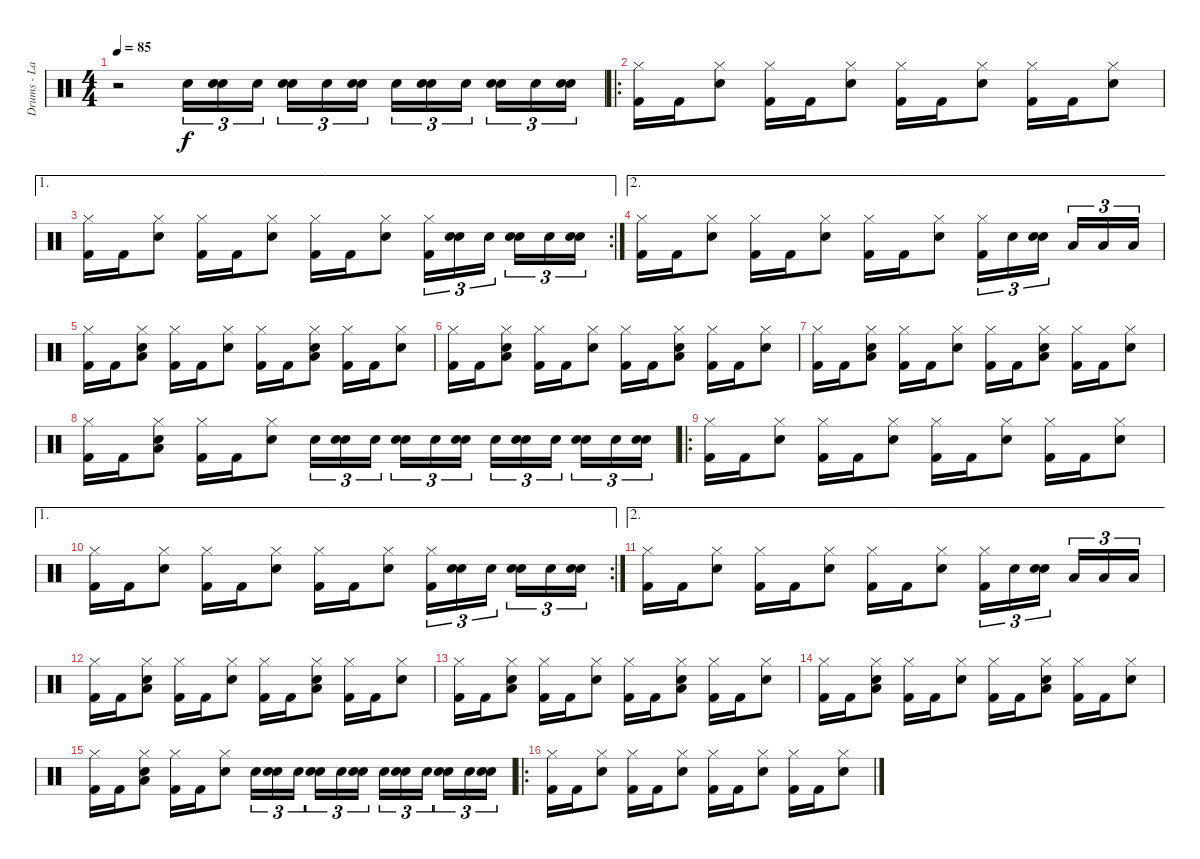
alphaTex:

\track ("Drums - Larzon" "Drums - La") {instrument percussion}
\staff {score}
\articulation defaults
\ts (4 4)
\tempo 85
\clef neutral
\ks c
r.2{dy f} "Snare (hit) 2".16{tu (3 2)} ("Snare (hit) 2" "Snare (hit) 2").16{tu (3 2)} "Snare (hit) 2".16{tu (3 2)} ("Snare (hit) 2" "Snare (hit) 2").16{tu (3 2)} "Snare (hit) 2".16{tu (3 2)} ("Snare (hit) 2" "Snare (hit) 2").16{tu (3 2)} "Snare (hit) 2".16{tu (3 2)} ("Snare (hit) 2" "Snare (hit) 2").16{tu (3 2)} "Snare (hit) 2".16{tu (3 2)} ("Snare (hit) 2" "Snare (hit) 2").16{tu (3 2)} "Snare (hit) 2".16{tu (3 2)} ("Snare (hit) 2" "Snare (hit) 2").16{tu (3 2)} |
\ro
("Hi-Hat (closed)" "Kick (hit) 2").16 "Kick (hit) 2".16 ("Hi-Hat (closed)" "Snare (hit) 2").8 ("Hi-Hat (closed)" "Kick (hit) 2").16 "Kick (hit) 2".16 ("Hi-Hat (closed)" "Snare (hit) 2").8 ("Hi-Hat (closed)" "Kick (hit) 2").16 "Kick (hit) 2".16 ("Hi-Hat (closed)" "Snare (hit) 2").8 ("Hi-Hat (closed)" "Kick (hit) 2").16 "Kick (hit) 2".16 ("Hi-Hat (closed)" "Snare (hit) 2").8 |
\ae 1
\rc 2
("Hi-Hat (closed)" "Kick (hit) 2").16 "Kick (hit) 2".16 ("Hi-Hat (closed)" "Snare (hit) 2").8 ("Hi-Hat (closed)" "Kick (hit) 2").16 "Kick (hit) 2".16 ("Hi-Hat (closed)" "Snare (hit) 2").8 ("Hi-Hat (closed)" "Kick (hit) 2").16 "Kick (hit) 2".16 ("Hi-Hat (closed)" "Snare (hit) 2").8 ("Hi-Hat (closed)" "Kick (hit) 2").16{tu (3 2)} ("Snare (hit) 2" "Snare (hit) 2").16{tu (3 2)} "Snare (hit) 2".16{tu (3 2)} ("Snare (hit) 2" "Snare (hit) 2").16{tu (3 2)} "Snare (hit) 2".16{tu (3 2)} ("Snare (hit) 2" "Snare (hit) 2").16{tu (3 2)} |
\ae 2
("Hi-Hat (closed)" "Kick (hit) 2").16 "Kick (hit) 2".16 ("Hi-Hat (closed)" "Snare (hit) 2").8 ("Hi-Hat (closed)" "Kick (hit) 2").16 "Kick (hit) 2".16 ("Hi-Hat (closed)" "Snare (hit) 2").8 ("Hi-Hat (closed)" "Kick (hit) 2").16 "Kick (hit) 2".16 ("Hi-Hat (closed)" "Snare (hit) 2").8 ("Hi-Hat (closed)" "Kick (hit) 2").16{tu (3 2)} "Snare (hit) 2".16{tu (3 2)} ("Snare (hit) 2" "Snare (hit) 2").16{tu (3 2)} "Low Tom (hit)".16{tu (3 2)} "Low Tom (hit)".16{tu (3 2)} "Low Tom (hit)".16{tu (3 2)} |
("Hi-Hat (closed)" "Kick (hit) 2").16 "Kick (hit) 2".16 ("Hi-Hat (closed)" "Low Tom (hit)" "Snare (hit) 2").8 ("Hi-Hat (closed)" "Kick (hit) 2").16 "Kick (hit) 2".16 ("Hi-Hat (closed)" "Snare (hit) 2").8 ("Hi-Hat (closed)" "Kick (hit) 2").16 "Kick (hit) 2".16 ("Hi-Hat (closed)" "Low Tom (hit)" "Snare (hit) 2").8 ("Hi-Hat (closed)" "Kick (hit) 2").16 "Kick (hit) 2".16 ("Hi-Hat (closed)" "Snare (hit) 2").8 |
("Hi-Hat (closed)" "Kick (hit) 2").16 "Kick (hit) 2".16 ("Hi-Hat (closed)" "Low Tom (hit)" "Snare (hit) 2").8 ("Hi-Hat (closed)" "Kick (hit) 2").16 "Kick (hit) 2".16 ("Hi-Hat (closed)" "Snare (hit) 2").8 ("Hi-Hat (closed)" "Kick (hit) 2").16 "Kick (hit) 2".16 ("Hi-Hat (closed)" "Low Tom (hit)" "Snare (hit) 2").8 ("Hi-Hat (closed)" "Kick (hit) 2").16 "Kick (hit) 2".16 ("Hi-Hat (closed)" "Snare (hit) 2").8 |
("Hi-Hat (closed)" "Kick (hit) 2").16 "Kick (hit) 2".16 ("Hi-Hat (closed)" "Low Tom (hit)" "Snare (hit) 2").8 ("Hi-Hat (closed)" "Kick (hit) 2").16 "Kick (hit) 2".16 ("Hi-Hat (closed)" "Snare (hit) 2").8 ("Hi-Hat (closed)" "Kick (hit) 2").16 "Kick (hit) 2".16 ("Hi-Hat (closed)" "Low Tom (hit)" "Snare (hit) 2").8 ("Hi-Hat (closed)" "Kick (hit) 2").16 "Kick (hit) 2".16 ("Hi-Hat (closed)" "Snare (hit) 2").8 |
("Hi-Hat (closed)" "Kick (hit) 2").16 "Kick (hit) 2".16 ("Hi-Hat (closed)" "Low Tom (hit)" "Snare (hit) 2").8 ("Hi-Hat (closed)" "Kick (hit) 2").16 "Kick (hit) 2".16 ("Hi-Hat (closed)" "Snare (hit) 2").8 "Snare (hit) 2".16{tu (3 2)} ("Snare (hit) 2" "Snare (hit) 2").16{tu (3 2)} "Snare (hit) 2".16{tu (3 2)} ("Snare (hit) 2" "Snare (hit) 2").16{tu (3 2)} "Snare (hit) 2".16{tu (3 2)} ("Snare (hit) 2" "Snare (hit) 2").16{tu (3 2)} "Snare (hit) 2".16{tu (3 2)} ("Snare (hit) 2" "Snare (hit) 2").16{tu (3 2)} "Snare (hit) 2".16{tu (3 2)} ("Snare (hit) 2" "Snare (hit) 2").16{tu (3 2)} "Snare (hit) 2".16{tu (3 2)} ("Snare (hit) 2" "Snare (hit) 2").16{tu (3 2)} |
\ro
("Hi-Hat (closed)" "Kick (hit) 2").16 "Kick (hit) 2".16 ("Hi-Hat (closed)" "Snare (hit) 2").8 ("Hi-Hat (closed)" "Kick (hit) 2").16 "Kick (hit) 2".16 ("Hi-Hat (closed)" "Snare (hit) 2").8 ("Hi-Hat (closed)" "Kick (hit) 2").16 "Kick (hit) 2".16 ("Hi-Hat (closed)" "Snare (hit) 2").8 ("Hi-Hat (closed)" "Kick (hit) 2").16 "Kick (hit) 2".16 ("Hi-Hat (closed)" "Snare (hit) 2").8 |
\ae 1
\rc 2
("Hi-Hat (closed)" "Kick (hit) 2").16 "Kick (hit) 2".16 ("Hi-Hat (closed)" "Snare (hit) 2").8 ("Hi-Hat (closed)" "Kick (hit) 2").16 "Kick (hit) 2".16 ("Hi-Hat (closed)" "Snare (hit) 2").8 ("Hi-Hat (closed)" "Kick (hit) 2").16 "Kick (hit) 2".16 ("Hi-Hat (closed)" "Snare (hit) 2").8 ("Hi-Hat (closed)" "Kick (hit) 2").16{tu (3 2)} ("Snare (hit) 2" "Snare (hit) 2").16{tu (3 2)} "Snare (hit) 2".16{tu (3 2)} ("Snare (hit) 2" "Snare (hit) 2").16{tu (3 2)} "Snare (hit) 2".16{tu (3 2)} ("Snare (hit) 2" "Snare (hit) 2").16{tu (3 2)} |
\ae 2
("Hi-Hat (closed)" "Kick (hit) 2").16 "Kick (hit) 2".16 ("Hi-Hat (closed)" "Snare (hit) 2").8 ("Hi-Hat (closed)" "Kick (hit) 2").16 "Kick (hit) 2".16 ("Hi-Hat (closed)" "Snare (hit) 2").8 ("Hi-Hat (closed)" "Kick (hit) 2").16 "Kick (hit) 2".16 ("Hi-Hat (closed)" "Snare (hit) 2").8 ("Hi-Hat (closed)" "Kick (hit) 2").16{tu (3 2)} "Snare (hit) 2".16{tu (3 2)} ("Snare (hit) 2" "Snare (hit) 2").16{tu (3 2)} "Low Tom (hit)".16{tu (3 2)} "Low Tom (hit)".16{tu (3 2)} "Low Tom (hit)".16{tu (3 2)} |
("Hi-Hat (closed)" "Kick (hit) 2").16 "Kick (hit) 2".16 ("Hi-Hat (closed)" "Low Tom (hit)" "Snare (hit) 2").8 ("Hi-Hat (closed)" "Kick (hit) 2").16 "Kick (hit) 2".16 ("Hi-Hat (closed)" "Snare (hit) 2").8 ("Hi-Hat (closed)" "Kick (hit) 2").16 "Kick (hit) 2".16 ("Hi-Hat (closed)" "Low Tom (hit)" "Snare (hit) 2").8 ("Hi-Hat (closed)" "Kick (hit) 2").16 "Kick (hit) 2".16 ("Hi-Hat (closed)" "Snare (hit) 2").8 |
("Hi-Hat (closed)" "Kick (hit) 2").16 "Kick (hit) 2".16 ("Hi-Hat (closed)" "Low Tom (hit)" "Snare (hit) 2").8 ("Hi-Hat (closed)" "Kick (hit) 2").16 "Kick (hit) 2".16 ("Hi-Hat (closed)" "Snare (hit) 2").8 ("Hi-Hat (closed)" "Kick (hit) 2").16 "Kick (hit) 2".16 ("Hi-Hat (closed)" "Low Tom (hit)" "Snare (hit) 2").8 ("Hi-Hat (closed)" "Kick (hit) 2").16 "Kick (hit) 2".16 ("Hi-Hat (closed)" "Snare (hit) 2").8 |
("Hi-Hat (closed)" "Kick (hit) 2").16 "Kick (hit) 2".16 ("Hi-Hat (closed)" "Low Tom (hit)" "Snare (hit) 2").8 ("Hi-Hat (closed)" "Kick (hit) 2").16 "Kick (hit) 2".16 ("Hi-Hat (closed)" "Snare (hit) 2").8 ("Hi-Hat (closed)" "Kick (hit) 2").16 "Kick (hit) 2".16 ("Hi-Hat (closed)" "Low Tom (hit)" "Snare (hit) 2").8 ("Hi-Hat (closed)" "Kick (hit) 2").16 "Kick (hit) 2".16 ("Hi-Hat (closed)" "Snare (hit) 2").8 |
("Hi-Hat (closed)" "Kick (hit) 2").16 "Kick (hit) 2".16 ("Hi-Hat (closed)" "Low Tom (hit)" "Snare (hit) 2").8 ("Hi-Hat (closed)" "Kick (hit) 2").16 "Kick (hit) 2".16 ("Hi-Hat (closed)" "Snare (hit) 2").8 "Snare (hit) 2".16{tu (3 2)} ("Snare (hit) 2" "Snare (hit) 2").16{tu (3 2)} "Snare (hit) 2".16{tu (3 2)} ("Snare (hit) 2" "Snare (hit) 2").16{tu (3 2)} "Snare (hit) 2".16{tu (3 2)} ("Snare (hit) 2" "Snare (hit) 2").16{tu (3 2)} "Snare (hit) 2".16{tu (3 2)} ("Snare (hit) 2" "Snare (hit) 2").16{tu (3 2)} "Snare (hit) 2".16{tu (3 2)} ("Snare (hit) 2" "Snare (hit) 2").16{tu (3 2)} "Snare (hit) 2".16{tu (3 2)} ("Snare (hit) 2" "Snare (hit) 2").16{tu (3 2)} |
\ro
("Hi-Hat (closed)" "Kick (hit) 2").16 "Kick (hit) 2".16 ("Hi-Hat (closed)" "Snare (hit) 2").8 ("Hi-Hat (closed)" "Kick (hit) 2").16 "Kick (hit) 2".16 ("Hi-Hat (closed)" "Snare (hit) 2").8 ("Hi-Hat (closed)" "Kick (hit) 2").16 "Kick (hit) 2".16 ("Hi-Hat (closed)" "Snare (hit) 2").8 ("Hi-Hat (closed)" "Kick (hit) 2").16 "Kick (hit) 2".16 ("Hi-Hat (closed)" "Snare (hit) 2").8
